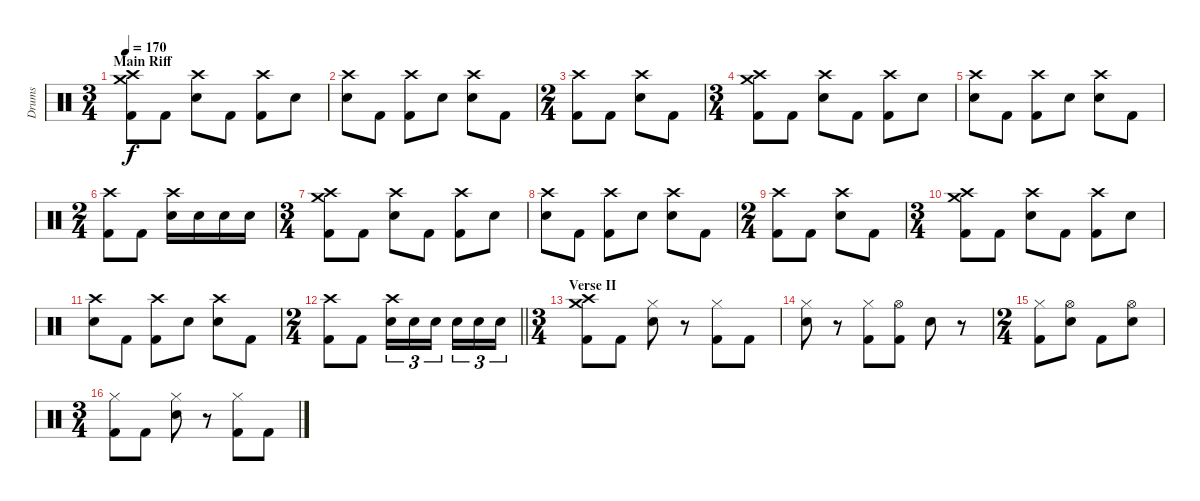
\track ("Drums" "Drums") {instrument percussion}
\staff {score}
\articulation defaults
\ts (3 4)
\section ("" "Main Riff")
\tempo 170
\clef neutral
\ks c
("Crash medium (hit)" "Crash high (hit)" "Kick (hit) 2").8{dy f} "Kick (hit) 2".8 ("Crash high (hit)" "Electric Snare (hit)").8 "Kick (hit) 2".8 ("Crash high (hit)" "Kick (hit) 2").8 "Electric Snare (hit)".8 |
("Crash high (hit)" "Electric Snare (hit)").8 "Kick (hit) 2".8 ("Crash high (hit)" "Kick (hit) 2").8 "Electric Snare (hit)".8 ("Crash high (hit)" "Electric Snare (hit)").8 "Kick (hit) 2".8 |
\ts (2 4)
("Crash high (hit)" "Kick (hit) 2").8 "Kick (hit) 2".8 ("Crash high (hit)" "Electric Snare (hit)").8 "Kick (hit) 2".8 |
\ts (3 4)
("Crash medium (hit)" "Crash high (hit)" "Kick (hit) 2").8 "Kick (hit) 2".8 ("Crash high (hit)" "Electric Snare (hit)").8 "Kick (hit) 2".8 ("Crash high (hit)" "Kick (hit) 2").8 "Electric Snare (hit)".8 |
("Crash high (hit)" "Electric Snare (hit)").8 "Kick (hit) 2".8 ("Crash high (hit)" "Kick (hit) 2").8 "Electric Snare (hit)".8 ("Crash high (hit)" "Electric Snare (hit)").8 "Kick (hit) 2".8 |
\ts (2 4)
("Crash high (hit)" "Kick (hit) 2").8 "Kick (hit) 2".8 ("Crash high (hit)" "Electric Snare (hit)").16 "Electric Snare (hit)".16 "Electric Snare (hit)".16 "Electric Snare (hit)".16 |
\ts (3 4)
("Crash medium (hit)" "Crash high (hit)" "Kick (hit) 2").8 "Kick (hit) 2".8 ("Crash high (hit)" "Electric Snare (hit)").8 "Kick (hit) 2".8 ("Crash high (hit)" "Kick (hit) 2").8 "Electric Snare (hit)".8 |
("Crash high (hit)" "Electric Snare (hit)").8 "Kick (hit) 2".8 ("Crash high (hit)" "Kick (hit) 2").8 "Electric Snare (hit)".8 ("Crash high (hit)" "Electric Snare (hit)").8 "Kick (hit) 2".8 |
\ts (2 4)
("Crash high (hit)" "Kick (hit) 2").8 "Kick (hit) 2".8 ("Crash high (hit)" "Electric Snare (hit)").8 "Kick (hit) 2".8 |
\ts (3 4)
("Crash medium (hit)" "Crash high (hit)" "Kick (hit) 2").8 "Kick (hit) 2".8 ("Crash high (hit)" "Electric Snare (hit)").8 "Kick (hit) 2".8 ("Crash high (hit)" "Kick (hit) 2").8 "Electric Snare (hit)".8 |
("Crash high (hit)" "Electric Snare (hit)").8 "Kick (hit) 2".8 ("Crash high (hit)" "Kick (hit) 2").8 "Electric Snare (hit)".8 ("Crash high (hit)" "Electric Snare (hit)").8 "Kick (hit) 2".8 |
\ts (2 4)
\barLineRight lightlight
("Crash high (hit)" "Kick (hit) 2").8 "Kick (hit) 2".8 ("Crash high (hit)" "Electric Snare (hit)").16{tu (3 2)} "Electric Snare (hit)".16{tu (3 2)} "Electric Snare (hit)".16{tu (3 2) beam splitsecondary} "Electric Snare (hit)".16{tu (3 2)} "Electric Snare (hit)".16{tu (3 2)} "Electric Snare (hit)".16{tu (3 2)} |
\ts (3 4)
\section ("" "Verse II")
("Crash medium (hit)" "Crash high (hit)" "Kick (hit) 2").8 "Kick (hit) 2".8 ("Hi-Hat (closed)" "Electric Snare (hit)").8 r.8 ("Hi-Hat (closed)" "Kick (hit) 2").8 "Kick (hit) 2".8 |
("Hi-Hat (closed)" "Electric Snare (hit)").8 r.8 ("Hi-Hat (closed)" "Kick (hit) 2").8 ("Hi-Hat (open)" "Kick (hit) 2").8 "Electric Snare (hit)".8 r.8 |
\ts (2 4)
("Hi-Hat (closed)" "Kick (hit) 2").8 ("Hi-Hat (open)" "Electric Snare (hit)").8 "Kick (hit) 2".8 ("Hi-Hat (open)" "Electric Snare (hit)").8 |
\ts (3 4)
("Hi-Hat (closed)" "Kick (hit) 2").8 "Kick (hit) 2".8 ("Hi-Hat (closed)" "Electric Snare (hit)").8 r.8 ("Hi-Hat (closed)" "Kick (hit) 2").8 "Kick (hit) 2".8
